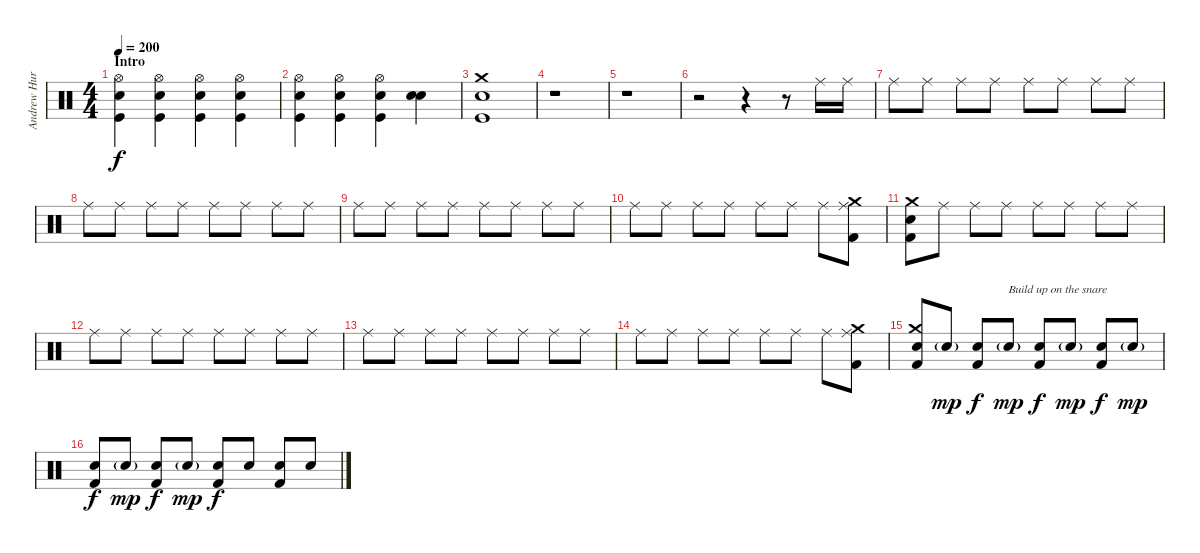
\track ("Andrew Hurley (Drums)" "Andrew Hur") {instrument percussion}
\staff {score}
\articulation defaults
\ts (4 4)
\section ("" "Intro")
\tempo 200
\clef neutral
\ks c
("Electric Snare (hit)" "Kick (hit)" "Hi-Hat (open)").4{dy f} ("Electric Snare (hit)" "Kick (hit)" "Hi-Hat (open)").4 ("Electric Snare (hit)" "Kick (hit)" "Hi-Hat (open)").4 ("Electric Snare (hit)" "Kick (hit)" "Hi-Hat (open)").4 |
("Electric Snare (hit)" "Kick (hit)" "Hi-Hat (open)").4 ("Electric Snare (hit)" "Kick (hit)" "Hi-Hat (open)").4 ("Electric Snare (hit)" "Kick (hit)" "Hi-Hat (open)").4 ("Electric Snare (hit)" "Snare (hit) 2").4 |
("Electric Snare (hit)" "Kick (hit)" "Crash medium (hit)").1 |
r.1 |
r.1 |
r.2 r.4 r.8 "Ride (middle)".16 "Ride (middle)".16 |
"Ride (middle)".8 "Ride (middle)".8 "Ride (middle)".8 "Ride (middle)".8 "Ride (middle)".8 "Ride (middle)".8 "Ride (middle)".8 "Ride (middle)".8 |
"Ride (middle)".8 "Ride (middle)".8 "Ride (middle)".8 "Ride (middle)".8 "Ride (middle)".8 "Ride (middle)".8 "Ride (middle)".8 "Ride (middle)".8 |
"Ride (middle)".8 "Ride (middle)".8 "Ride (middle)".8 "Ride (middle)".8 "Ride (middle)".8 "Ride (middle)".8 "Ride (middle)".8 "Ride (middle)".8 |
"Ride (middle)".8 "Ride (middle)".8 "Ride (middle)".8 "Ride (middle)".8 "Ride (middle)".8 "Ride (middle)".8 "Ride (middle)".8 ("Crash medium (hit)" "Ride (middle)" "Kick (hit) 2").8 |
("Kick (hit) 2" "Crash medium (hit)" "Electric Snare (hit)").8 "Ride (middle)".8 "Ride (middle)".8 "Ride (middle)".8 "Ride (middle)".8 "Ride (middle)".8 "Ride (middle)".8 "Ride (middle)".8 |
"Ride (middle)".8 "Ride (middle)".8 "Ride (middle)".8 "Ride (middle)".8 "Ride (middle)".8 "Ride (middle)".8 "Ride (middle)".8 "Ride (middle)".8 |
"Ride (middle)".8 "Ride (middle)".8 "Ride (middle)".8 "Ride (middle)".8 "Ride (middle)".8 "Ride (middle)".8 "Ride (middle)".8 "Ride (middle)".8 |
"Ride (middle)".8 "Ride (middle)".8 "Ride (middle)".8 "Ride (middle)".8 "Ride (middle)".8 "Ride (middle)".8 "Ride (middle)".8 ("Crash medium (hit)" "Ride (middle)" "Kick (hit) 2").8 |
("Electric Snare (hit)" "Kick (hit) 2" "Crash medium (hit)").8 "Electric Snare (hit)"{g}.8{dy mp volume 10} ("Electric Snare (hit)" "Kick (hit) 2").8{dy f volume 14} "Electric Snare (hit)"{g}.8{txt "Build up on the snare" dy mp} ("Electric Snare (hit)" "Kick (hit) 2").8{dy f} "Electric Snare (hit)"{g}.8{dy mp} ("Electric Snare (hit)" "Kick (hit) 2").8{dy f} "Electric Snare (hit)"{g}.8{dy mp} |
("Electric Snare (hit)" "Kick (hit) 2").8{dy f} "Electric Snare (hit)"{g}.8{dy mp} ("Electric Snare (hit)" "Kick (hit) 2").8{dy f} "Electric Snare (hit)"{g}.8{dy mp} ("Electric Snare (hit)" "Kick (hit) 2").8{dy f} "Electric Snare (hit)".8 ("Electric Snare (hit)" "Kick (hit) 2").8 "Electric Snare (hit)".8
